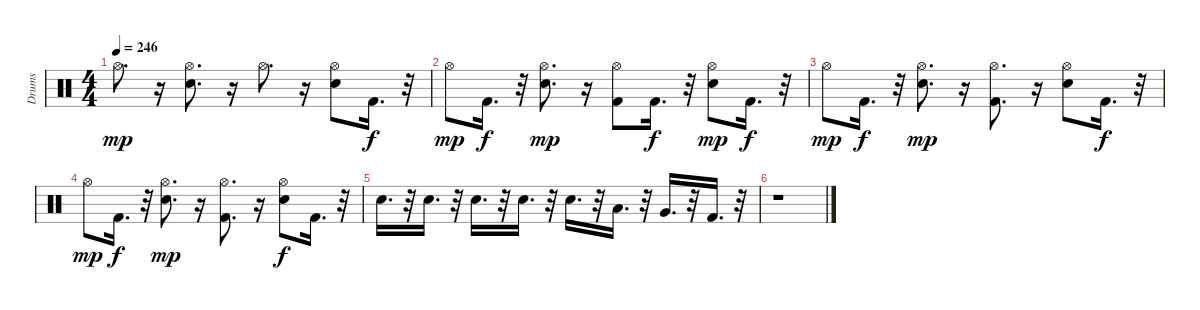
\track ("Drums" "Drums") {instrument percussion}
\staff {score}
\articulation defaults
\ts (4 4)
\tempo 246
\clef neutral
\ks c "Hi-Hat (open)".8{d dy mp}
r.16 ("Hi-Hat (open)" "Electric Snare (hit)").8{d} r.16 "Hi-Hat (open)".8{d} r.16 ("Hi-Hat (open)" "Electric Snare (hit)").8 "Kick (hit) 2".16{d dy f} r.32 |
"Hi-Hat (open)".8{dy mp} "Kick (hit) 2".16{d dy f} r.32 ("Hi-Hat (open)" "Electric Snare (hit)").8{d dy mp} r.16 ("Hi-Hat (open)" "Kick (hit) 2").8 "Kick (hit) 2".16{d dy f} r.32 ("Hi-Hat (open)" "Electric Snare (hit)").8{dy mp} "Kick (hit) 2".16{d dy f} r.32 |
"Hi-Hat (open)".8{dy mp} "Kick (hit) 2".16{d dy f} r.32 ("Hi-Hat (open)" "Electric Snare (hit)").8{d dy mp} r.16 ("Hi-Hat (open)" "Kick (hit) 2").8{d} r.16 ("Hi-Hat (open)" "Electric Snare (hit)").8 "Kick (hit) 2".16{d dy f} r.32 |
"Hi-Hat (open)".8{dy mp} "Kick (hit) 2".16{d dy f} r.32 ("Hi-Hat (open)" "Electric Snare (hit)").8{d dy mp} r.16 ("Hi-Hat (open)" "Kick (hit) 2").8{d} r.16 ("Hi-Hat (open)" "Electric Snare (hit)").8{dy f} "Kick (hit) 2".16{d} r.32 |
"Electric Snare (hit)".16{d} r.32 "Electric Snare (hit)".16{d} r.32 "Electric Snare (hit)".16{d} r.32 "Electric Snare (hit)".16{d} r.32 "Electric Snare (hit)".16{d} r.32 "Low Tom (hit)".16{d} r.32 "Very Low Tom (hit)".16{d} r.32 "Kick (hit) 2".16{d} r.32 |
r.1
